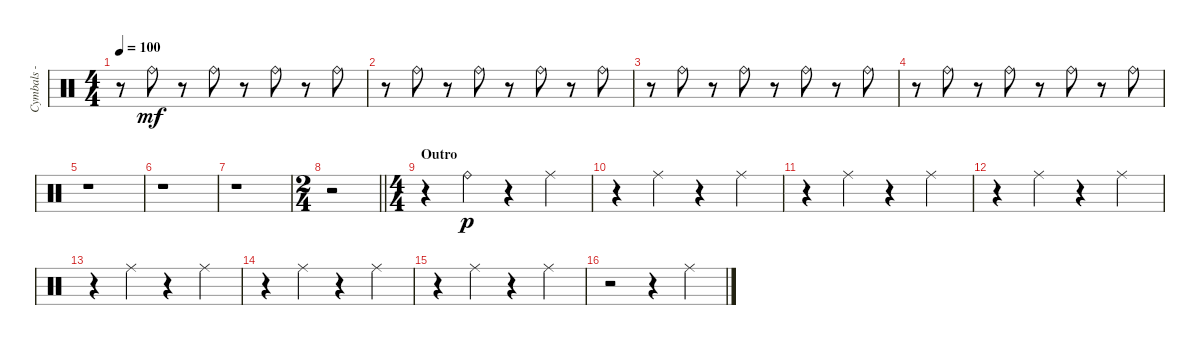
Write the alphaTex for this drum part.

\track ("Cymbals - ride" "Cymbals - ") {instrument percussion}
\staff {score}
\articulation defaults
\ts (4 4)
\tempo 100
\clef neutral
\ks c
r.8{dy mf} "Ride (bell)".8 r.8 "Ride (bell)".8 r.8 "Ride (bell)".8 r.8 "Ride (bell)".8 |
r.8 "Ride (bell)".8 r.8 "Ride (bell)".8 r.8 "Ride (bell)".8 r.8 "Ride (bell)".8 |
r.8 "Ride (bell)".8 r.8 "Ride (bell)".8 r.8 "Ride (bell)".8 r.8 "Ride (bell)".8 |
r.8 "Ride (bell)".8 r.8 "Ride (bell)".8 r.8 "Ride (bell)".8 r.8 "Ride (bell)".8 |
r.1 |
\ks aminor
r.1 |
r.1 |
\ts (2 4)
\barLineRight lightlight
r.2 |
\ts (4 4)
\section ("" "Outro")
r.4 "Ride (bell)".4{dy p} r.4 "Ride (middle)".4 |
r.4 "Ride (middle)".4 r.4 "Ride (middle)".4 |
r.4 "Ride (middle)".4 r.4 "Ride (middle)".4 |
r.4 "Ride (middle)".4 r.4 "Ride (middle)".4 |
r.4 "Ride (middle)".4 r.4 "Ride (middle)".4 |
r.4 "Ride (middle)".4 r.4 "Ride (middle)".4 |
r.4 "Ride (middle)".4 r.4 "Ride (middle)".4 |
r.2 r.4 "Ride (middle)".4
